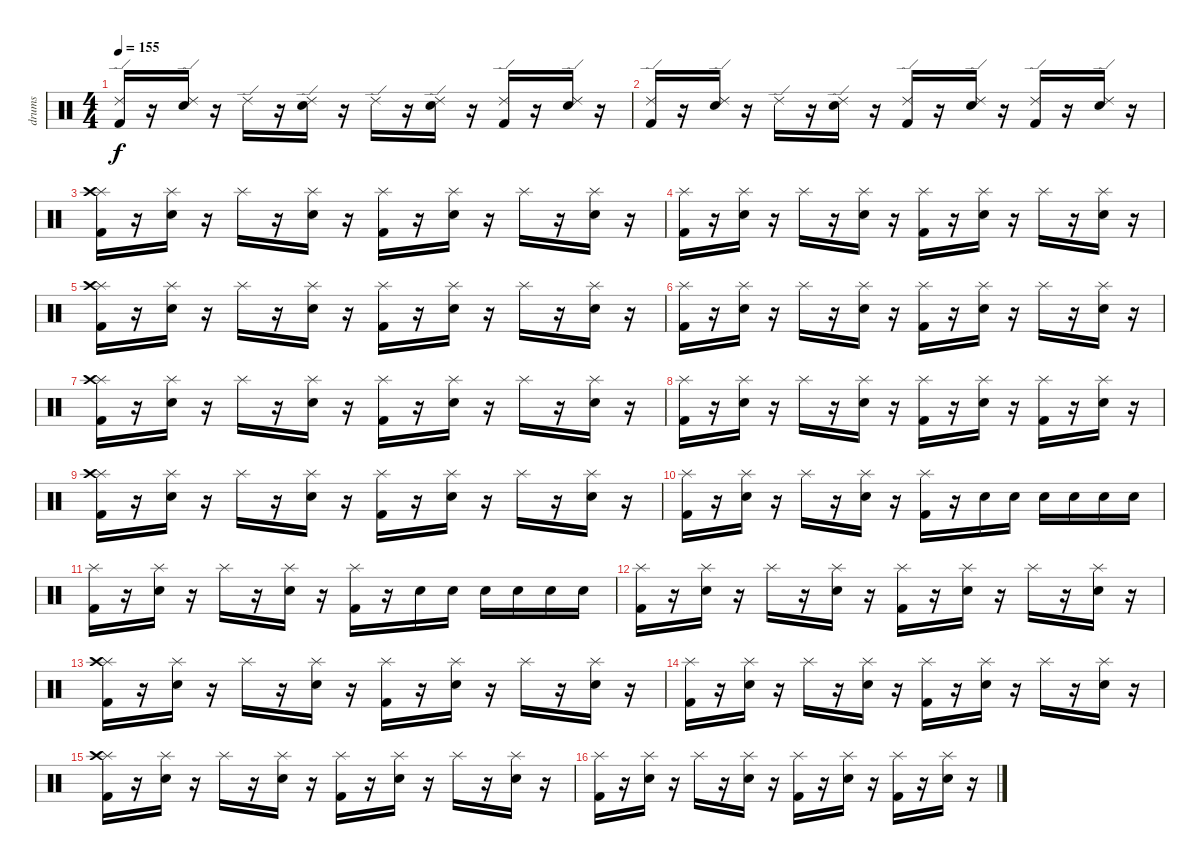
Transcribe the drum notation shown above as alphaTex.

\track ("drums" "drums") {instrument percussion}
\staff {score}
\articulation defaults
\ts (4 4)
\tempo 155
\clef neutral
\ks c
("Ride (edge) 2" "Kick (hit) 2").16{dy f} r.16 ("Ride (edge) 2" "Snare (hit) 2").16 r.16 "Ride (edge) 2".16 r.16 ("Ride (edge) 2" "Snare (hit) 2").16 r.16 "Ride (edge) 2".16 r.16 ("Ride (edge) 2" "Snare (hit) 2").16 r.16 ("Ride (edge) 2" "Kick (hit) 2").16 r.16 ("Ride (edge) 2" "Snare (hit) 2").16 r.16 |
("Ride (edge) 2" "Kick (hit) 2").16 r.16 ("Ride (edge) 2" "Snare (hit) 2").16 r.16 "Ride (edge) 2".16 r.16 ("Ride (edge) 2" "Snare (hit) 2").16 r.16 ("Ride (edge) 2" "Kick (hit) 2").16 r.16 ("Ride (edge) 2" "Snare (hit) 2").16 r.16 ("Ride (edge) 2" "Kick (hit) 2").16 r.16 ("Ride (edge) 2" "Snare (hit) 2").16 r.16 |
("Splash (hit)" "Crash high (hit)" "Kick (hit) 2").16 r.16 ("Splash (hit)" "Snare (hit) 2").16 r.16 "Splash (hit)".16 r.16 ("Splash (hit)" "Snare (hit) 2").16 r.16 ("Splash (hit)" "Kick (hit) 2").16 r.16 ("Splash (hit)" "Snare (hit) 2").16 r.16 "Splash (hit)".16 r.16 ("Splash (hit)" "Snare (hit) 2").16 r.16 |
("Splash (hit)" "Kick (hit) 2").16 r.16 ("Splash (hit)" "Snare (hit) 2").16 r.16 "Splash (hit)".16 r.16 ("Splash (hit)" "Snare (hit) 2").16 r.16 ("Splash (hit)" "Kick (hit) 2").16 r.16 ("Splash (hit)" "Snare (hit) 2").16 r.16 "Splash (hit)".16 r.16 ("Splash (hit)" "Snare (hit) 2").16 r.16 |
("Splash (hit)" "Crash high (hit)" "Kick (hit) 2").16 r.16 ("Splash (hit)" "Snare (hit) 2").16 r.16 "Splash (hit)".16 r.16 ("Splash (hit)" "Snare (hit) 2").16 r.16 ("Splash (hit)" "Kick (hit) 2").16 r.16 ("Splash (hit)" "Snare (hit) 2").16 r.16 "Splash (hit)".16 r.16 ("Splash (hit)" "Snare (hit) 2").16 r.16 |
("Splash (hit)" "Kick (hit) 2").16 r.16 ("Splash (hit)" "Snare (hit) 2").16 r.16 "Splash (hit)".16 r.16 ("Splash (hit)" "Snare (hit) 2").16 r.16 ("Splash (hit)" "Kick (hit) 2").16 r.16 ("Splash (hit)" "Snare (hit) 2").16 r.16 "Splash (hit)".16 r.16 ("Splash (hit)" "Snare (hit) 2").16 r.16 |
("Splash (hit)" "Crash high (hit)" "Kick (hit) 2").16 r.16 ("Splash (hit)" "Snare (hit) 2").16 r.16 "Splash (hit)".16 r.16 ("Splash (hit)" "Snare (hit) 2").16 r.16 ("Splash (hit)" "Kick (hit) 2").16 r.16 ("Splash (hit)" "Snare (hit) 2").16 r.16 "Splash (hit)".16 r.16 ("Splash (hit)" "Snare (hit) 2").16 r.16 |
("Splash (hit)" "Kick (hit) 2").16 r.16 ("Splash (hit)" "Snare (hit) 2").16 r.16 "Splash (hit)".16 r.16 ("Splash (hit)" "Snare (hit) 2").16 r.16 ("Splash (hit)" "Kick (hit) 2").16 r.16 ("Splash (hit)" "Snare (hit) 2").16 r.16 ("Splash (hit)" "Kick (hit) 2").16 r.16 ("Splash (hit)" "Snare (hit) 2").16 r.16 |
("Splash (hit)" "Crash high (hit)" "Kick (hit) 2").16 r.16 ("Splash (hit)" "Snare (hit) 2").16 r.16 "Splash (hit)".16 r.16 ("Splash (hit)" "Snare (hit) 2").16 r.16 ("Splash (hit)" "Kick (hit) 2").16 r.16 ("Splash (hit)" "Snare (hit) 2").16 r.16 "Splash (hit)".16 r.16 ("Splash (hit)" "Snare (hit) 2").16 r.16 |
("Splash (hit)" "Kick (hit) 2").16 r.16 ("Splash (hit)" "Snare (hit) 2").16 r.16 "Splash (hit)".16 r.16 ("Splash (hit)" "Snare (hit) 2").16 r.16 ("Splash (hit)" "Kick (hit) 2").16 r.16 "Snare (hit) 2".16 "Snare (hit) 2".16 "Snare (hit) 2".16 "Snare (hit) 2".16 "Snare (hit) 2".16 "Snare (hit) 2".16 |
("Splash (hit)" "Kick (hit) 2").16 r.16 ("Splash (hit)" "Snare (hit) 2").16 r.16 "Splash (hit)".16 r.16 ("Splash (hit)" "Snare (hit) 2").16 r.16 ("Splash (hit)" "Kick (hit) 2").16 r.16 "Snare (hit) 2".16 "Snare (hit) 2".16 "Snare (hit) 2".16 "Snare (hit) 2".16 "Snare (hit) 2".16 "Snare (hit) 2".16 |
("Splash (hit)" "Kick (hit) 2").16 r.16 ("Splash (hit)" "Snare (hit) 2").16 r.16 "Splash (hit)".16 r.16 ("Splash (hit)" "Snare (hit) 2").16 r.16 ("Splash (hit)" "Kick (hit) 2").16 r.16 ("Splash (hit)" "Snare (hit) 2").16 r.16 "Splash (hit)".16 r.16 ("Splash (hit)" "Snare (hit) 2").16 r.16 |
("Splash (hit)" "Crash high (hit)" "Kick (hit) 2").16 r.16 ("Splash (hit)" "Snare (hit) 2").16 r.16 "Splash (hit)".16 r.16 ("Splash (hit)" "Snare (hit) 2").16 r.16 ("Splash (hit)" "Kick (hit) 2").16 r.16 ("Splash (hit)" "Snare (hit) 2").16 r.16 "Splash (hit)".16 r.16 ("Splash (hit)" "Snare (hit) 2").16 r.16 |
("Splash (hit)" "Kick (hit) 2").16 r.16 ("Splash (hit)" "Snare (hit) 2").16 r.16 "Splash (hit)".16 r.16 ("Splash (hit)" "Snare (hit) 2").16 r.16 ("Splash (hit)" "Kick (hit) 2").16 r.16 ("Splash (hit)" "Snare (hit) 2").16 r.16 "Splash (hit)".16 r.16 ("Splash (hit)" "Snare (hit) 2").16 r.16 |
("Splash (hit)" "Crash high (hit)" "Kick (hit) 2").16 r.16 ("Splash (hit)" "Snare (hit) 2").16 r.16 "Splash (hit)".16 r.16 ("Splash (hit)" "Snare (hit) 2").16 r.16 ("Splash (hit)" "Kick (hit) 2").16 r.16 ("Splash (hit)" "Snare (hit) 2").16 r.16 "Splash (hit)".16 r.16 ("Splash (hit)" "Snare (hit) 2").16 r.16 |
("Splash (hit)" "Kick (hit) 2").16 r.16 ("Splash (hit)" "Snare (hit) 2").16 r.16 "Splash (hit)".16 r.16 ("Splash (hit)" "Snare (hit) 2").16 r.16 ("Splash (hit)" "Kick (hit) 2").16 r.16 ("Splash (hit)" "Snare (hit) 2").16 r.16 ("Splash (hit)" "Kick (hit) 2").16 r.16 ("Splash (hit)" "Snare (hit) 2").16 r.16
